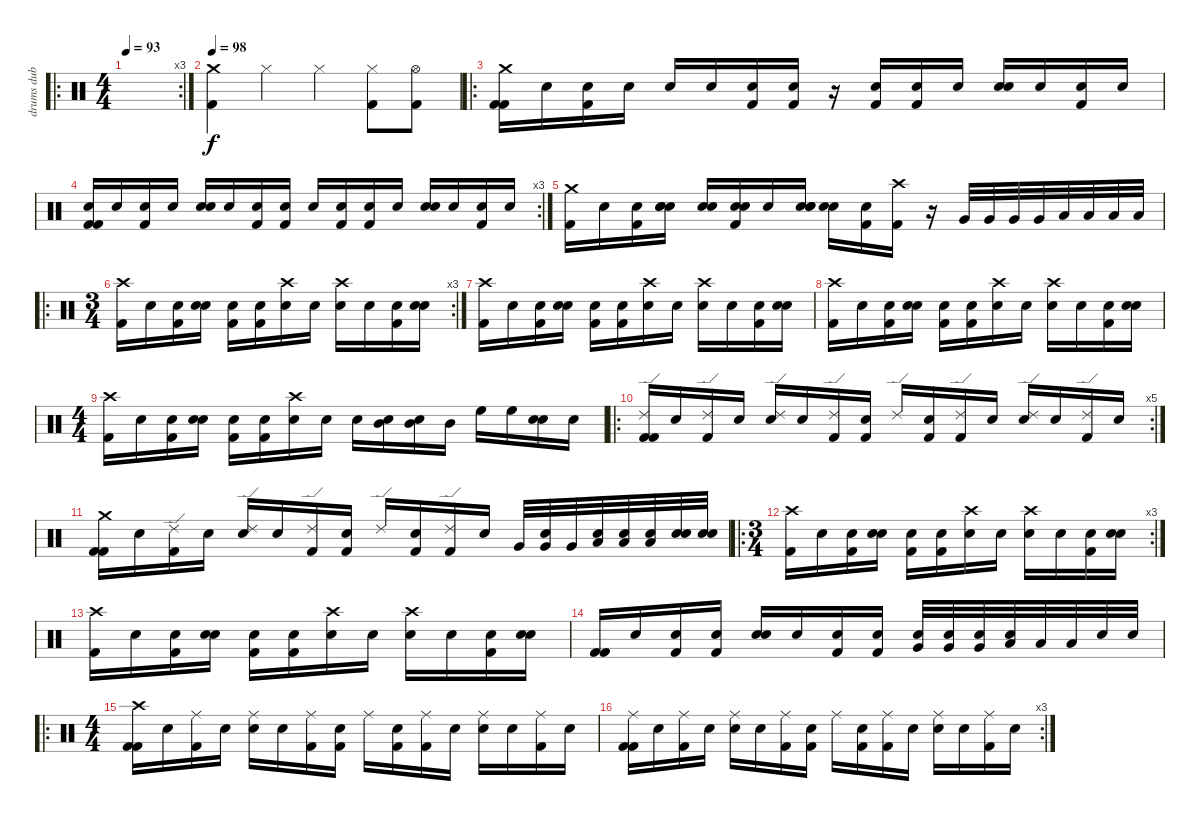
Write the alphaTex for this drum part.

\track ("drums dub" "drums dub") {instrument percussion}
\staff {score}
\articulation defaults
\ro
\rc 3
\ts (4 4)
\tempo 93
\clef neutral
\ks c
|
\tempo 93
\tempo 98
("Crash medium (hit)" "Kick (hit) 2").4 "Hi-Hat (closed)".4 "Hi-Hat (closed)".4 ("Hi-Hat (closed)" "Kick (hit) 2").8 ("Hi-Hat (open)" "Kick (hit) 2").8 |
\ro
("Crash medium (hit)" "Kick (hit) 2" "Kick (hit) 2").16 "Snare (hit)".16 ("Snare (hit)" "Kick (hit) 2").16 "Snare (hit)".16 "Snare (hit) 2".16 "Snare (hit)".16 ("Snare (hit)" "Kick (hit) 2").16 ("Snare (hit)" "Kick (hit) 2").16 r.16 ("Snare (hit)" "Kick (hit) 2").16 ("Snare (hit)" "Kick (hit) 2").16 "Snare (hit)".16 ("Snare (hit)" "Snare (hit) 2").16 "Snare (hit)".16 ("Snare (hit)" "Kick (hit) 2").16 "Snare (hit)".16 |
\rc 3
("Snare (hit)" "Kick (hit) 2" "Kick (hit) 2").16 "Snare (hit)".16 ("Snare (hit)" "Kick (hit) 2").16 "Snare (hit)".16 ("Snare (hit)" "Snare (hit) 2").16 "Snare (hit)".16 ("Snare (hit)" "Kick (hit) 2").16 ("Snare (hit)" "Kick (hit) 2").16 "Snare (hit)".16 ("Snare (hit)" "Kick (hit) 2").16 ("Snare (hit)" "Kick (hit) 2").16 "Snare (hit)".16 ("Snare (hit)" "Snare (hit) 2").16 "Snare (hit)".16 ("Snare (hit)" "Kick (hit) 2").16 "Snare (hit)".16 |
("Crash medium (hit)" "Kick (hit) 2").16 "Snare (hit)".16 ("Snare (hit)" "Kick (hit) 2").16 ("Snare (hit)" "Snare (hit)" "Snare (hit)").16 ("Snare (hit)" "Snare (hit) 2").16 ("Snare (hit)" "Snare (hit)" "Kick (hit) 2").16 "Snare (hit)".16 ("Snare (hit)" "Snare (hit)" "Snare (hit)").16 ("Snare (hit)" "Snare (hit)").16 ("Snare (hit) 2" "Kick (hit) 2").16 ("Crash high (hit)" "Kick (hit) 2").16 r.16 "Very Low Tom (hit)".32 "Very Low Tom (hit)".32 "Very Low Tom (hit)".32 "Very Low Tom (hit)".32 "Low Floor Tom (hit)".32 "Low Floor Tom (hit)".32 "Low Floor Tom (hit)".32 "Low Floor Tom (hit)".32 |
\ro
\rc 3
\ts (3 4)
("Crash high (hit)" "Kick (hit) 2").16 "Snare (hit)".16 ("Snare (hit)" "Kick (hit) 2").16 ("Snare (hit)" "Snare (hit) 2").16 ("Snare (hit)" "Kick (hit) 2").16 ("Snare (hit)" "Kick (hit) 2").16 ("Crash high (hit)" "Snare (hit) 2").16 "Snare (hit)".16 ("Crash high (hit)" "Snare (hit) 2").16 "Snare (hit)".16 ("Snare (hit)" "Kick (hit) 2").16 ("Snare (hit)" "Snare (hit) 2").16 |
("Crash high (hit)" "Kick (hit) 2").16 "Snare (hit)".16 ("Snare (hit)" "Kick (hit) 2").16 ("Snare (hit)" "Snare (hit) 2").16 ("Snare (hit)" "Kick (hit) 2").16 ("Snare (hit)" "Kick (hit) 2").16 ("Crash high (hit)" "Snare (hit) 2").16 "Snare (hit)".16 ("Crash high (hit)" "Snare (hit) 2").16 "Snare (hit)".16 ("Snare (hit)" "Kick (hit) 2").16 ("Snare (hit)" "Snare (hit) 2").16 |
("Crash high (hit)" "Kick (hit) 2").16 "Snare (hit)".16 ("Snare (hit)" "Kick (hit) 2").16 ("Snare (hit)" "Snare (hit) 2").16 ("Snare (hit)" "Kick (hit) 2").16 ("Snare (hit)" "Kick (hit) 2").16 ("Crash high (hit)" "Snare (hit) 2").16 "Snare (hit)".16 ("Crash high (hit)" "Snare (hit) 2").16 "Snare (hit)".16 ("Snare (hit)" "Kick (hit) 2").16 ("Snare (hit)" "Snare (hit) 2").16 |
\ts (4 4)
("Crash high (hit)" "Kick (hit) 2").16 "Snare (hit)".16 ("Snare (hit)" "Kick (hit) 2").16 ("Snare (hit)" "Snare (hit) 2").16 ("Snare (hit)" "Kick (hit) 2").16 ("Snare (hit)" "Kick (hit) 2").16 ("Crash high (hit)" "Snare (hit) 2").16 "Snare (hit)".16 "Snare (hit) 2".16 ("Snare (hit)" "Mid Tom (hit)").16 ("Snare (hit)" "Mid Tom (hit)").16 "Mid Tom (hit)".16 "High Floor Tom (hit)".16 "High Floor Tom (hit)".16 ("Snare (hit)" "Snare (hit) 2").16 "Snare (hit) 2".16 |
\ro
\rc 5
("Ride (edge) 2" "Kick (hit) 2" "Kick (hit) 2").16 "Snare (hit)".16 ("Ride (edge) 2" "Kick (hit) 2").16 "Snare (hit)".16 ("Ride (edge) 2" "Snare (hit) 2").16 "Snare (hit)".16 ("Ride (edge) 2" "Kick (hit) 2").16 ("Snare (hit)" "Kick (hit) 2").16 "Ride (edge) 2".16 ("Snare (hit)" "Kick (hit) 2").16 ("Ride (edge) 2" "Kick (hit) 2").16 "Snare (hit)".16 ("Ride (edge) 2" "Snare (hit) 2").16 "Snare (hit)".16 ("Ride (edge) 2" "Kick (hit) 2").16 "Snare (hit)".16 |
("Crash medium (hit)" "Kick (hit) 2" "Kick (hit) 2").16 "Snare (hit)".16 ("Ride (edge) 2" "Kick (hit) 2").16 "Snare (hit)".16 ("Ride (edge) 2" "Snare (hit) 2").16 "Snare (hit)".16 ("Ride (edge) 2" "Kick (hit) 2").16 ("Snare (hit)" "Kick (hit) 2").16 "Ride (edge) 2".16 ("Snare (hit)" "Kick (hit) 2").16 ("Ride (edge) 2" "Kick (hit) 2").16 "Snare (hit)".16 "Very Low Tom (hit)".32 ("Snare (hit)" "Very Low Tom (hit)").32 "Very Low Tom (hit)".32 ("Snare (hit)" "Low Floor Tom (hit)").32 ("Snare (hit)" "Low Floor Tom (hit)").32 ("Snare (hit)" "Low Floor Tom (hit)").32 ("Snare (hit)" "Snare (hit) 2").32 ("Snare (hit)" "Snare (hit) 2").32 |
\ro
\rc 3
\ts (3 4)
("Crash high (hit)" "Kick (hit) 2").16 "Snare (hit)".16 ("Snare (hit)" "Kick (hit) 2").16 ("Snare (hit)" "Snare (hit) 2").16 ("Snare (hit)" "Kick (hit) 2").16 ("Snare (hit)" "Kick (hit) 2").16 ("Crash high (hit)" "Snare (hit) 2").16 "Snare (hit)".16 ("Crash high (hit)" "Snare (hit) 2").16 "Snare (hit)".16 ("Snare (hit)" "Kick (hit) 2").16 ("Snare (hit)" "Snare (hit) 2").16 |
("Crash high (hit)" "Kick (hit) 2").16 "Snare (hit)".16 ("Snare (hit)" "Kick (hit) 2").16 ("Snare (hit)" "Snare (hit) 2").16 ("Snare (hit)" "Kick (hit) 2").16 ("Snare (hit)" "Kick (hit) 2").16 ("Crash high (hit)" "Snare (hit) 2").16 "Snare (hit)".16 ("Crash high (hit)" "Snare (hit) 2").16 "Snare (hit)".16 ("Snare (hit)" "Kick (hit) 2").16 ("Snare (hit)" "Snare (hit) 2").16 |
("Kick (hit) 2" "Kick (hit) 2").16 "Snare (hit)".16 ("Snare (hit)" "Kick (hit) 2").16 ("Snare (hit)" "Kick (hit) 2").16 ("Snare (hit)" "Snare (hit)").16 "Snare (hit)".16 ("Snare (hit)" "Kick (hit) 2").16 ("Snare (hit)" "Kick (hit) 2").16 ("Snare (hit)" "Very Low Tom (hit)").32 ("Snare (hit)" "Very Low Tom (hit)").32 ("Snare (hit)" "Very Low Tom (hit)").32 ("Snare (hit)" "Low Floor Tom (hit)").32 "Low Floor Tom (hit)".32 "Low Floor Tom (hit)".32 "Snare (hit) 2".32 "Snare (hit) 2".32 |
\ro
\ts (4 4)
("Crash high (hit)" "Kick (hit) 2" "Kick (hit) 2").16 "Snare (hit)".16 ("Ride (middle)" "Kick (hit) 2").16 "Snare (hit)".16 ("Ride (middle)" "Snare (hit) 2").16 "Snare (hit)".16 ("Ride (middle)" "Kick (hit) 2").16 ("Snare (hit)" "Kick (hit) 2").16 "Ride (middle)".16 ("Snare (hit)" "Kick (hit) 2").16 ("Ride (middle)" "Kick (hit) 2").16 "Snare (hit)".16 ("Ride (middle)" "Snare (hit) 2").16 "Snare (hit)".16 ("Ride (middle)" "Kick (hit) 2").16 "Snare (hit)".16 |
\rc 3
("Ride (middle)" "Kick (hit) 2" "Kick (hit) 2").16 "Snare (hit)".16 ("Ride (middle)" "Kick (hit) 2").16 "Snare (hit)".16 ("Ride (middle)" "Snare (hit) 2").16 "Snare (hit)".16 ("Ride (middle)" "Kick (hit) 2").16 ("Snare (hit)" "Kick (hit) 2").16 "Ride (middle)".16 ("Snare (hit)" "Kick (hit) 2").16 ("Ride (middle)" "Kick (hit) 2").16 "Snare (hit)".16 ("Ride (middle)" "Snare (hit) 2").16 "Snare (hit)".16 ("Ride (middle)" "Kick (hit) 2").16 "Snare (hit)".16
